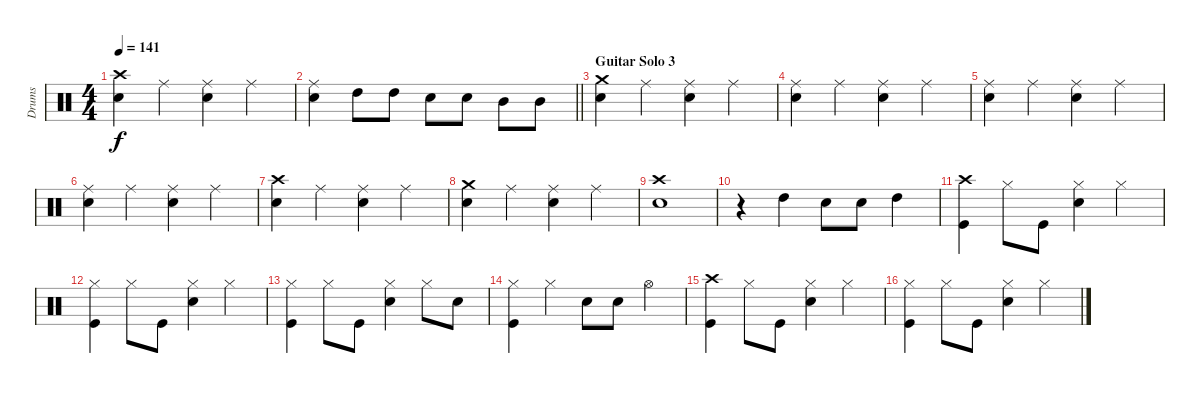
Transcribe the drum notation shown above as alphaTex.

\track ("Drums" "Drums") {instrument percussion}
\staff {score}
\articulation defaults
\ts (4 4)
\tempo 141
\clef neutral
\ks c
("Crash high (hit)" "Snare (hit) 2").4{dy f} "Ride (middle)".4 ("Ride (middle)" "Snare (hit) 2").4 "Ride (middle)".4 |
\barLineRight lightlight
("Ride (middle)" "Snare (hit) 2").4 "High Tom (hit)".8 "High Tom (hit)".8 "Snare (hit) 2".8 "Snare (hit) 2".8 "Mid Tom (hit)".8 "Mid Tom (hit)".8 |
\section ("" "Guitar Solo 3")
("Crash medium (hit)" "Snare (hit) 2").4 "Ride (middle)".4 ("Ride (middle)" "Snare (hit) 2").4 "Ride (middle)".4 |
("Ride (middle)" "Snare (hit) 2").4 "Ride (middle)".4 ("Ride (middle)" "Snare (hit) 2").4 "Ride (middle)".4 |
("Ride (middle)" "Snare (hit) 2").4 "Ride (middle)".4 ("Ride (middle)" "Snare (hit) 2").4 "Ride (middle)".4 |
("Ride (middle)" "Snare (hit) 2").4 "Ride (middle)".4 ("Ride (middle)" "Snare (hit) 2").4 "Ride (middle)".4 |
("Crash high (hit)" "Snare (hit) 2").4 "Ride (middle)".4 ("Ride (middle)" "Snare (hit) 2").4 "Ride (middle)".4 |
("Crash medium (hit)" "Snare (hit) 2").4 "Ride (middle)".4 ("Ride (middle)" "Snare (hit) 2").4 "Ride (middle)".4 |
("Crash high (hit)" "Snare (hit) 2").1 |
r.4 "High Tom (hit)".4 "Snare (hit) 2".8 "Snare (hit) 2".8 "High Tom (hit)".4 |
("Crash high (hit)" "Kick (hit)").4 "Hi-Hat (closed)".8 "Kick (hit)".8 ("Hi-Hat (closed)" "Snare (hit) 2").4 "Hi-Hat (closed)".4 |
("Hi-Hat (closed)" "Kick (hit)").4 "Hi-Hat (closed)".8 "Kick (hit)".8 ("Hi-Hat (closed)" "Snare (hit) 2").4 "Hi-Hat (closed)".4 |
("Hi-Hat (closed)" "Kick (hit)").4 "Hi-Hat (closed)".8 "Kick (hit)".8 ("Hi-Hat (closed)" "Snare (hit) 2").4 "Hi-Hat (closed)".8 "Snare (hit) 2".8 |
("Hi-Hat (closed)" "Kick (hit)").4 "Hi-Hat (closed)".4 "Snare (hit) 2".8 "Snare (hit) 2".8 "Hi-Hat (open)".4 |
("Crash high (hit)" "Kick (hit)").4 "Hi-Hat (closed)".8 "Kick (hit)".8 ("Hi-Hat (closed)" "Snare (hit) 2").4 "Hi-Hat (closed)".4 |
("Hi-Hat (closed)" "Kick (hit)").4 "Hi-Hat (closed)".8 "Kick (hit)".8 ("Hi-Hat (closed)" "Snare (hit) 2").4 "Hi-Hat (closed)".4
